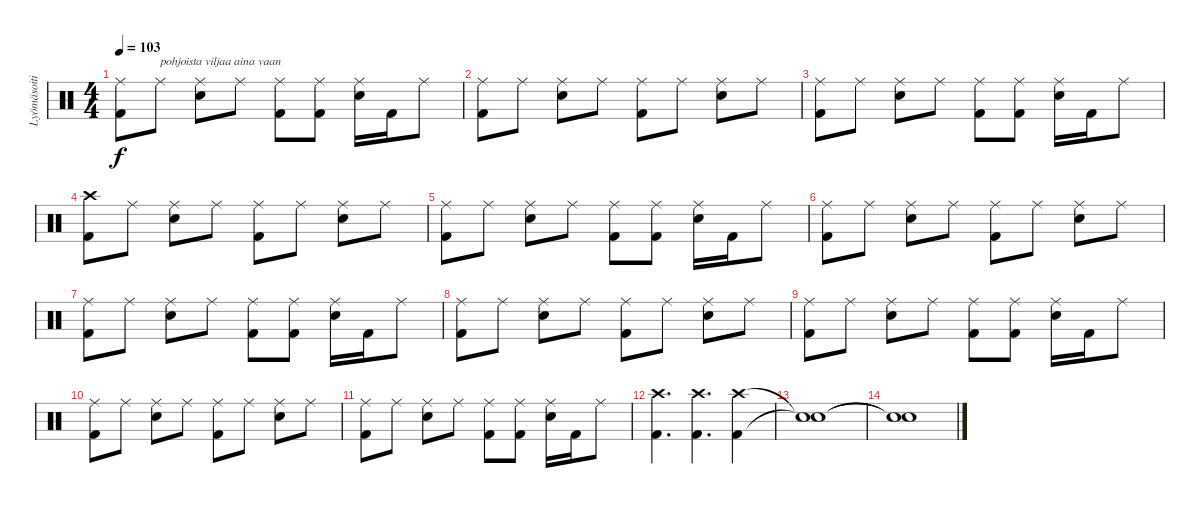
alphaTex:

\track ("Lyömäsoitin" "Lyömäsoiti") {instrument percussion}
\staff {score}
\articulation defaults
\ts (4 4)
\tempo 103
\clef neutral
\ks c
("Ride (middle)" "Kick (hit) 2").8{dy f} "Ride (middle)".8{txt "pohjoista viljaa aina vaan"} ("Ride (middle)" "Snare (hit) 2").8 "Ride (middle)".8 ("Ride (middle)" "Kick (hit) 2").8 ("Ride (middle)" "Kick (hit) 2").8 ("Ride (middle)" "Snare (hit) 2").16 "Kick (hit) 2".16 "Ride (middle)".8 |
("Ride (middle)" "Kick (hit) 2").8 "Ride (middle)".8 ("Ride (middle)" "Snare (hit) 2").8 "Ride (middle)".8 ("Ride (middle)" "Kick (hit) 2").8 "Ride (middle)".8 ("Ride (middle)" "Snare (hit) 2").8 "Ride (middle)".8 |
("Ride (middle)" "Kick (hit) 2").8 "Ride (middle)".8 ("Ride (middle)" "Snare (hit) 2").8 "Ride (middle)".8 ("Ride (middle)" "Kick (hit) 2").8 ("Ride (middle)" "Kick (hit) 2").8 ("Ride (middle)" "Snare (hit) 2").16 "Kick (hit) 2".16 "Ride (middle)".8 |
("Crash high (hit)" "Kick (hit) 2").8 "Ride (middle)".8 ("Ride (middle)" "Snare (hit) 2").8 "Ride (middle)".8 ("Ride (middle)" "Kick (hit) 2").8 "Ride (middle)".8 ("Ride (middle)" "Snare (hit) 2").8 "Ride (middle)".8 |
("Ride (middle)" "Kick (hit) 2").8 "Ride (middle)".8 ("Ride (middle)" "Snare (hit) 2").8 "Ride (middle)".8 ("Ride (middle)" "Kick (hit) 2").8 ("Ride (middle)" "Kick (hit) 2").8 ("Ride (middle)" "Snare (hit) 2").16 "Kick (hit) 2".16 "Ride (middle)".8 |
("Ride (middle)" "Kick (hit) 2").8 "Ride (middle)".8 ("Ride (middle)" "Snare (hit) 2").8 "Ride (middle)".8 ("Ride (middle)" "Kick (hit) 2").8 "Ride (middle)".8 ("Ride (middle)" "Snare (hit) 2").8 "Ride (middle)".8 |
("Ride (middle)" "Kick (hit) 2").8 "Ride (middle)".8 ("Ride (middle)" "Snare (hit) 2").8 "Ride (middle)".8 ("Ride (middle)" "Kick (hit) 2").8 ("Ride (middle)" "Kick (hit) 2").8 ("Ride (middle)" "Snare (hit) 2").16 "Kick (hit) 2".16 "Ride (middle)".8 |
("Ride (middle)" "Kick (hit) 2").8 "Ride (middle)".8 ("Ride (middle)" "Snare (hit) 2").8 "Ride (middle)".8 ("Ride (middle)" "Kick (hit) 2").8 "Ride (middle)".8 ("Ride (middle)" "Snare (hit) 2").8 "Ride (middle)".8 |
("Ride (middle)" "Kick (hit) 2").8 "Ride (middle)".8 ("Ride (middle)" "Snare (hit) 2").8 "Ride (middle)".8 ("Ride (middle)" "Kick (hit) 2").8 ("Ride (middle)" "Kick (hit) 2").8 ("Ride (middle)" "Snare (hit) 2").16 "Kick (hit) 2".16 "Ride (middle)".8 |
("Ride (middle)" "Kick (hit) 2").8 "Ride (middle)".8 ("Ride (middle)" "Snare (hit) 2").8 "Ride (middle)".8 ("Ride (middle)" "Kick (hit) 2").8 "Ride (middle)".8 ("Ride (middle)" "Snare (hit) 2").8 "Ride (middle)".8 |
("Ride (middle)" "Kick (hit) 2").8 "Ride (middle)".8 ("Ride (middle)" "Snare (hit) 2").8 "Ride (middle)".8 ("Ride (middle)" "Kick (hit) 2").8 ("Ride (middle)" "Kick (hit) 2").8 ("Ride (middle)" "Snare (hit) 2").16 "Kick (hit) 2".16 "Ride (middle)".8 |
("Crash high (hit)" "Kick (hit) 2").4{d} ("Crash high (hit)" "Kick (hit) 2").4{d} ("Crash high (hit)" "Kick (hit) 2").4 |
("Snare (hit)"{t} "Snare (hit)"{t}).1 |
("Snare (hit)"{t} "Snare (hit)"{t}).1
